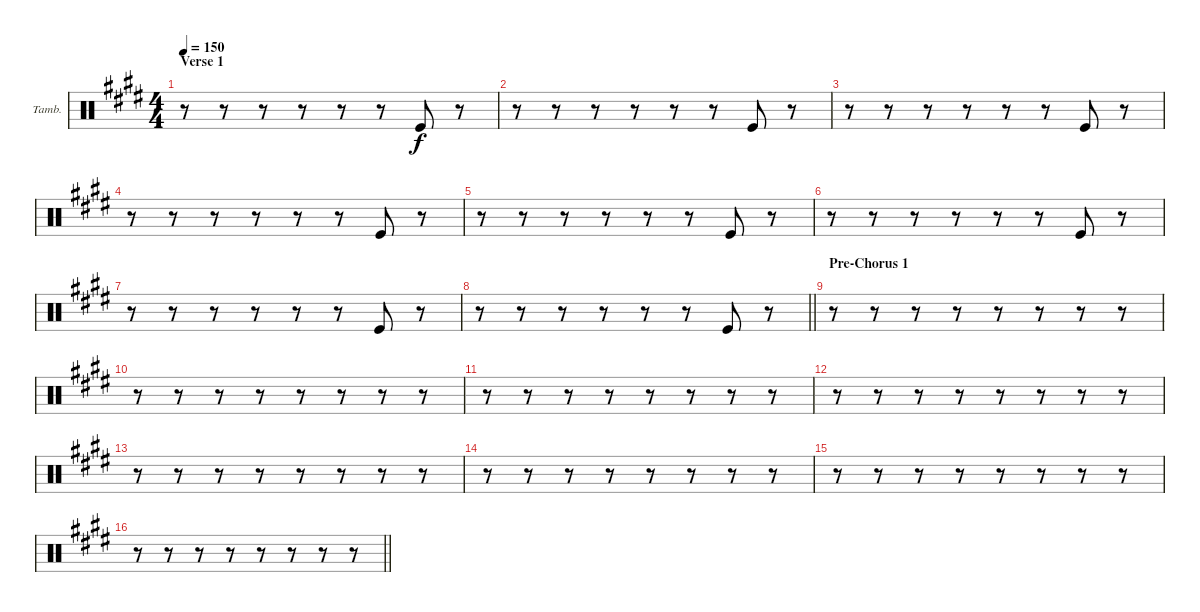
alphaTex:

\bracketExtendMode groupsimilarinstruments
\firstSystemTrackNameOrientation horizontal
\otherSystemsTrackNameOrientation horizontal
\track ("Tambourine" "Tamb.") {instrument percussion}
\staff {score}
\articulation defaults
\ts (4 4)
\section ("" "Verse 1")
\tempo 150
\clef neutral
\ks e
r.8{dy f} r.8 r.8 r.8 r.8 r.8 "Kick (hit)".8 r.8 |
r.8 r.8 r.8 r.8 r.8 r.8 "Kick (hit)".8 r.8 |
r.8 r.8 r.8 r.8 r.8 r.8 "Kick (hit)".8 r.8 |
r.8 r.8 r.8 r.8 r.8 r.8 "Kick (hit)".8 r.8 |
r.8 r.8 r.8 r.8 r.8 r.8 "Kick (hit)".8 r.8 |
r.8 r.8 r.8 r.8 r.8 r.8 "Kick (hit)".8 r.8 |
r.8 r.8 r.8 r.8 r.8 r.8 "Kick (hit)".8 r.8 |
\barLineRight lightlight
r.8 r.8 r.8 r.8 r.8 r.8 "Kick (hit)".8 r.8 |
\section ("" "Pre-Chorus 1")
r.8 r.8 r.8 r.8 r.8 r.8 r.8 r.8 |
r.8 r.8 r.8 r.8 r.8 r.8 r.8 r.8 |
r.8 r.8 r.8 r.8 r.8 r.8 r.8 r.8 |
r.8 r.8 r.8 r.8 r.8 r.8 r.8 r.8 |
r.8 r.8 r.8 r.8 r.8 r.8 r.8 r.8 |
r.8 r.8 r.8 r.8 r.8 r.8 r.8 r.8 |
r.8 r.8 r.8 r.8 r.8 r.8 r.8 r.8 |
\barLineRight lightlight
r.8 r.8 r.8 r.8 r.8 r.8 r.8 r.8
